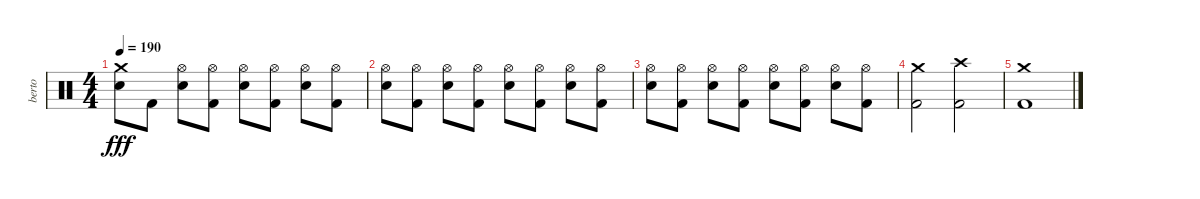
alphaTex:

\track ("berto" "berto") {instrument percussion}
\staff {score}
\articulation defaults
\ts (4 4)
\tempo 190
\clef neutral
\ks c
("Crash medium (hit)" "Snare (hit) 2").8{dy fff} "Kick (hit) 2".8 ("Hi-Hat (open)" "Snare (hit) 2").8 ("Hi-Hat (open)" "Kick (hit) 2").8 ("Hi-Hat (open)" "Snare (hit) 2").8 ("Hi-Hat (open)" "Kick (hit) 2").8 ("Hi-Hat (open)" "Snare (hit) 2").8 ("Hi-Hat (open)" "Kick (hit) 2").8 |
("Hi-Hat (open)" "Snare (hit) 2").8 ("Hi-Hat (open)" "Kick (hit) 2").8 ("Hi-Hat (open)" "Snare (hit) 2").8 ("Hi-Hat (open)" "Kick (hit) 2").8 ("Hi-Hat (open)" "Snare (hit) 2").8 ("Hi-Hat (open)" "Kick (hit) 2").8 ("Hi-Hat (open)" "Snare (hit) 2").8 ("Hi-Hat (open)" "Kick (hit) 2").8 |
("Hi-Hat (open)" "Snare (hit) 2").8 ("Hi-Hat (open)" "Kick (hit) 2").8 ("Hi-Hat (open)" "Snare (hit) 2").8 ("Hi-Hat (open)" "Kick (hit) 2").8 ("Hi-Hat (open)" "Snare (hit) 2").8 ("Hi-Hat (open)" "Kick (hit) 2").8 ("Hi-Hat (open)" "Snare (hit) 2").8 ("Hi-Hat (open)" "Kick (hit) 2").8 |
("Crash medium (hit)" "Kick (hit) 2").2 ("Crash high (hit)" "Kick (hit) 2").2 |
("Crash medium (hit)" "Kick (hit) 2").1
